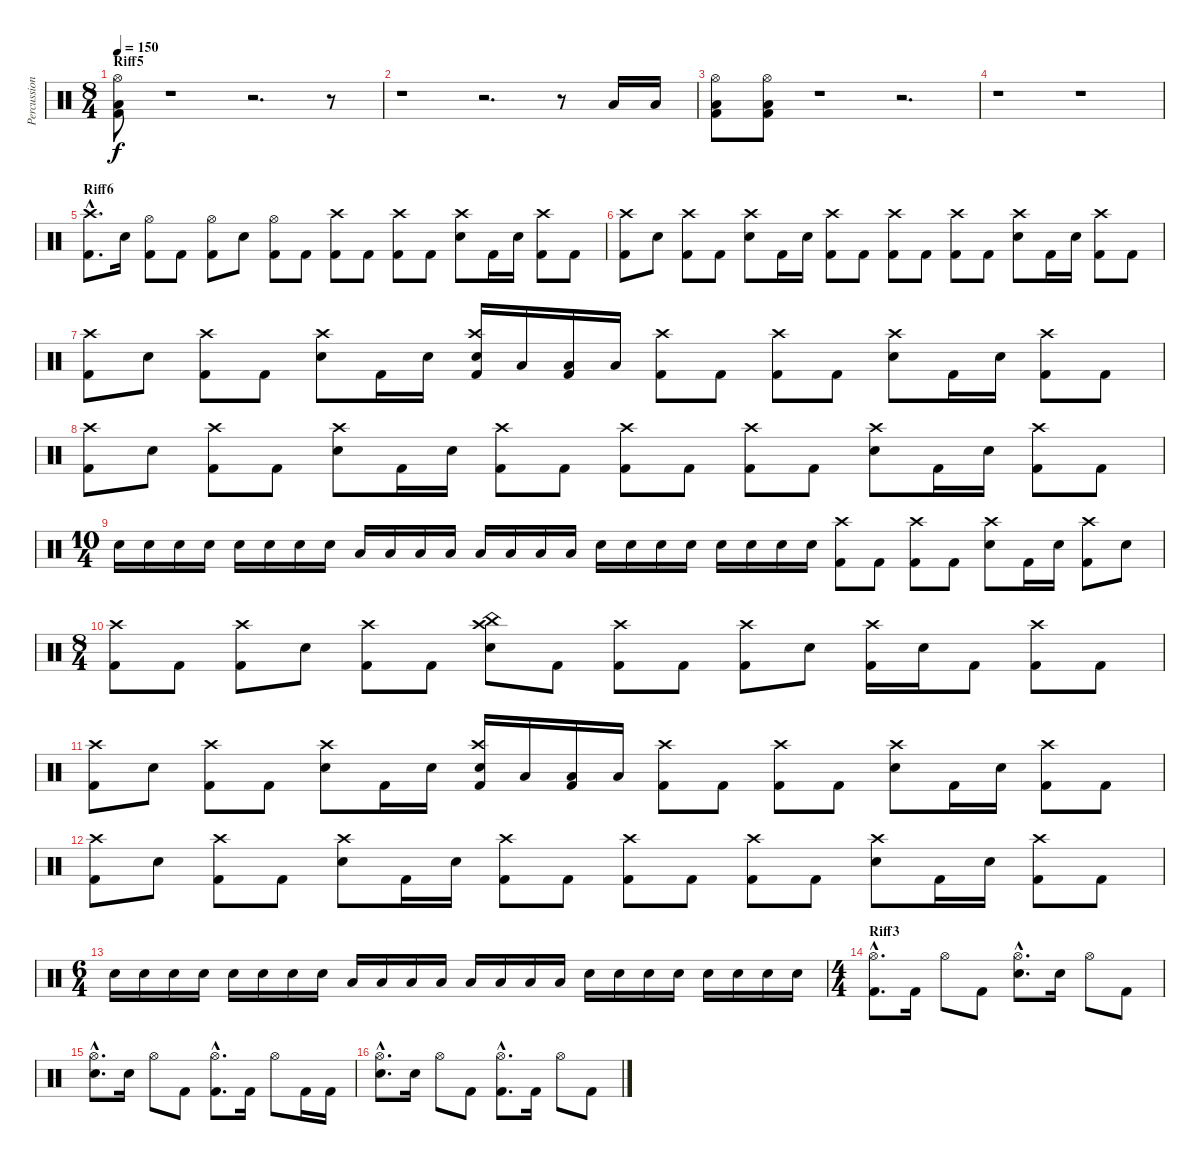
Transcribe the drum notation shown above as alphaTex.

\track ("Percussions" "Percussion") {instrument percussion}
\staff {score}
\articulation defaults
\ts (8 4)
\section ("" "Riff5")
\tempo 150
\clef neutral
\ks c
("Hi-Hat (open)" "Low Floor Tom (hit)" "Kick (hit) 2").8{dy f} r.1 r.2{d} r.8 |
r.1 r.2{d} r.8 "Low Tom (hit)".16 "Low Floor Tom (hit)".16 |
("Hi-Hat (open)" "Low Floor Tom (hit)" "Kick (hit) 2").8 ("Hi-Hat (open)" "Low Floor Tom (hit)" "Kick (hit) 2").8 r.1 r.2{d} |
r.1 r.1 |
\section ("" "Riff6")
("Crash high (hit)"{hac} "Kick (hit) 2"{hac}).8{d} "Electric Snare (hit)".16 ("Hi-Hat (open)" "Kick (hit) 2").8 "Kick (hit) 2".8 ("Hi-Hat (open)" "Kick (hit) 2").8 "Electric Snare (hit)".8 ("Hi-Hat (open)" "Kick (hit) 2").8 "Kick (hit) 2".8 ("Crash high (hit)" "Kick (hit) 2").8 "Kick (hit) 2".8 ("Crash high (hit)" "Kick (hit) 2").8 "Kick (hit) 2".8 ("Crash high (hit)" "Electric Snare (hit)").8 "Kick (hit) 2".16 "Electric Snare (hit)".16 ("Crash high (hit)" "Kick (hit) 2").8 "Kick (hit) 2".8 |
("Crash high (hit)" "Kick (hit) 2").8 "Electric Snare (hit)".8 ("Crash high (hit)" "Kick (hit) 2").8 "Kick (hit) 2".8 ("Crash high (hit)" "Electric Snare (hit)").8 "Kick (hit) 2".16 "Electric Snare (hit)".16 ("Crash high (hit)" "Kick (hit) 2").8 "Kick (hit) 2".8 ("Crash high (hit)" "Kick (hit) 2").8 "Kick (hit) 2".8 ("Crash high (hit)" "Kick (hit) 2").8 "Kick (hit) 2".8 ("Crash high (hit)" "Electric Snare (hit)").8 "Kick (hit) 2".16 "Electric Snare (hit)".16 ("Crash high (hit)" "Kick (hit) 2").8 "Kick (hit) 2".8 |
("Crash high (hit)" "Kick (hit) 2").8 "Electric Snare (hit)".8 ("Crash high (hit)" "Kick (hit) 2").8 "Kick (hit) 2".8 ("Crash high (hit)" "Electric Snare (hit)").8 "Kick (hit) 2".16 "Electric Snare (hit)".16 ("Crash high (hit)" "Electric Snare (hit)" "Kick (hit) 2").16 "Low Tom (hit)".16 ("Low Tom (hit)" "Kick (hit) 2").16 "Low Floor Tom (hit)".16 ("Crash high (hit)" "Kick (hit) 2").8 "Kick (hit) 2".8 ("Crash high (hit)" "Kick (hit) 2").8 "Kick (hit) 2".8 ("Crash high (hit)" "Electric Snare (hit)").8 "Kick (hit) 2".16 "Electric Snare (hit)".16 ("Crash high (hit)" "Kick (hit) 2").8 "Kick (hit) 2".8 |
("Crash high (hit)" "Kick (hit) 2").8 "Electric Snare (hit)".8 ("Crash high (hit)" "Kick (hit) 2").8 "Kick (hit) 2".8 ("Crash high (hit)" "Electric Snare (hit)").8 "Kick (hit) 2".16 "Electric Snare (hit)".16 ("Crash high (hit)" "Kick (hit) 2").8 "Kick (hit) 2".8 ("Crash high (hit)" "Kick (hit) 2").8 "Kick (hit) 2".8 ("Crash high (hit)" "Kick (hit) 2").8 "Kick (hit) 2".8 ("Crash high (hit)" "Electric Snare (hit)").8 "Kick (hit) 2".16 "Electric Snare (hit)".16 ("Crash high (hit)" "Kick (hit) 2").8 "Kick (hit) 2".8 |
\ts (10 4)
"Electric Snare (hit)".16 "Electric Snare (hit)".16 "Electric Snare (hit)".16 "Electric Snare (hit)".16 "Electric Snare (hit)".16 "Electric Snare (hit)".16 "Electric Snare (hit)".16 "Electric Snare (hit)".16 "Low Tom (hit)".16 "Low Tom (hit)".16 "Low Tom (hit)".16 "Low Tom (hit)".16 "Low Floor Tom (hit)".16 "Low Floor Tom (hit)".16 "Low Floor Tom (hit)".16 "Low Floor Tom (hit)".16 "Electric Snare (hit)".16 "Electric Snare (hit)".16 "Electric Snare (hit)".16 "Electric Snare (hit)".16 "Electric Snare (hit)".16 "Electric Snare (hit)".16 "Electric Snare (hit)".16 "Electric Snare (hit)".16 ("Crash high (hit)" "Kick (hit) 2").8 "Kick (hit) 2".8 ("Crash high (hit)" "Kick (hit) 2").8 "Kick (hit) 2".8 ("Crash high (hit)" "Electric Snare (hit)").8 "Kick (hit) 2".16 "Electric Snare (hit)".16 ("Crash high (hit)" "Kick (hit) 2").8 "Electric Snare (hit)".8 |
\ts (8 4)
("Crash high (hit)" "Kick (hit) 2").8 "Kick (hit) 2".8 ("Crash high (hit)" "Kick (hit) 2").8 "Electric Snare (hit)".8 ("Crash high (hit)" "Kick (hit) 2").8 "Kick (hit) 2".8 ("Crash high (hit)" "China (hit)" "Electric Snare (hit)").8 "Kick (hit) 2".8 ("Crash high (hit)" "Kick (hit) 2").8 "Kick (hit) 2".8 ("Crash high (hit)" "Kick (hit) 2").8 "Electric Snare (hit)".8 ("Crash high (hit)" "Kick (hit) 2").16 "Electric Snare (hit)".16 "Kick (hit) 2".8 ("Crash high (hit)" "Kick (hit) 2").8 "Kick (hit) 2".8 |
("Crash high (hit)" "Kick (hit) 2").8 "Electric Snare (hit)".8 ("Crash high (hit)" "Kick (hit) 2").8 "Kick (hit) 2".8 ("Crash high (hit)" "Electric Snare (hit)").8 "Kick (hit) 2".16 "Electric Snare (hit)".16 ("Crash high (hit)" "Electric Snare (hit)" "Kick (hit) 2").16 "Low Tom (hit)".16 ("Low Tom (hit)" "Kick (hit) 2").16 "Low Floor Tom (hit)".16 ("Crash high (hit)" "Kick (hit) 2").8 "Kick (hit) 2".8 ("Crash high (hit)" "Kick (hit) 2").8 "Kick (hit) 2".8 ("Crash high (hit)" "Electric Snare (hit)").8 "Kick (hit) 2".16 "Electric Snare (hit)".16 ("Crash high (hit)" "Kick (hit) 2").8 "Kick (hit) 2".8 |
("Crash high (hit)" "Kick (hit) 2").8 "Electric Snare (hit)".8 ("Crash high (hit)" "Kick (hit) 2").8 "Kick (hit) 2".8 ("Crash high (hit)" "Electric Snare (hit)").8 "Kick (hit) 2".16 "Electric Snare (hit)".16 ("Crash high (hit)" "Kick (hit) 2").8 "Kick (hit) 2".8 ("Crash high (hit)" "Kick (hit) 2").8 "Kick (hit) 2".8 ("Crash high (hit)" "Kick (hit) 2").8 "Kick (hit) 2".8 ("Crash high (hit)" "Electric Snare (hit)").8 "Kick (hit) 2".16 "Electric Snare (hit)".16 ("Crash high (hit)" "Kick (hit) 2").8 "Kick (hit) 2".8 |
\ts (6 4)
"Electric Snare (hit)".16 "Electric Snare (hit)".16 "Electric Snare (hit)".16 "Electric Snare (hit)".16 "Electric Snare (hit)".16 "Electric Snare (hit)".16 "Electric Snare (hit)".16 "Electric Snare (hit)".16 "Low Tom (hit)".16 "Low Tom (hit)".16 "Low Tom (hit)".16 "Low Tom (hit)".16 "Low Floor Tom (hit)".16 "Low Floor Tom (hit)".16 "Low Floor Tom (hit)".16 "Low Floor Tom (hit)".16 "Electric Snare (hit)".16 "Electric Snare (hit)".16 "Electric Snare (hit)".16 "Electric Snare (hit)".16 "Electric Snare (hit)".16 "Electric Snare (hit)".16 "Electric Snare (hit)".16 "Electric Snare (hit)".16 |
\ts (4 4)
\section ("" "Riff3")
("Hi-Hat (open)"{hac} "Kick (hit) 2"{hac}).8{d} "Kick (hit) 2".16 "Hi-Hat (open)".8 "Kick (hit) 2".8 ("Hi-Hat (open)"{hac} "Electric Snare (hit)"{hac}).8{d} "Electric Snare (hit)".16 "Hi-Hat (open)".8 "Kick (hit) 2".8 |
("Hi-Hat (open)"{hac} "Electric Snare (hit)"{hac}).8{d} "Electric Snare (hit)".16 "Hi-Hat (open)".8 "Kick (hit) 2".8 ("Hi-Hat (open)"{hac} "Kick (hit) 2"{hac}).8{d} "Kick (hit) 2".16 "Hi-Hat (open)".8 "Kick (hit) 2".16 "Kick (hit) 2".16 |
("Hi-Hat (open)"{hac} "Electric Snare (hit)"{hac}).8{d} "Electric Snare (hit)".16 "Hi-Hat (open)".8 "Kick (hit) 2".8 ("Hi-Hat (open)"{hac} "Kick (hit) 2"{hac}).8{d} "Kick (hit) 2".16 "Hi-Hat (open)".8 "Kick (hit) 2".8
